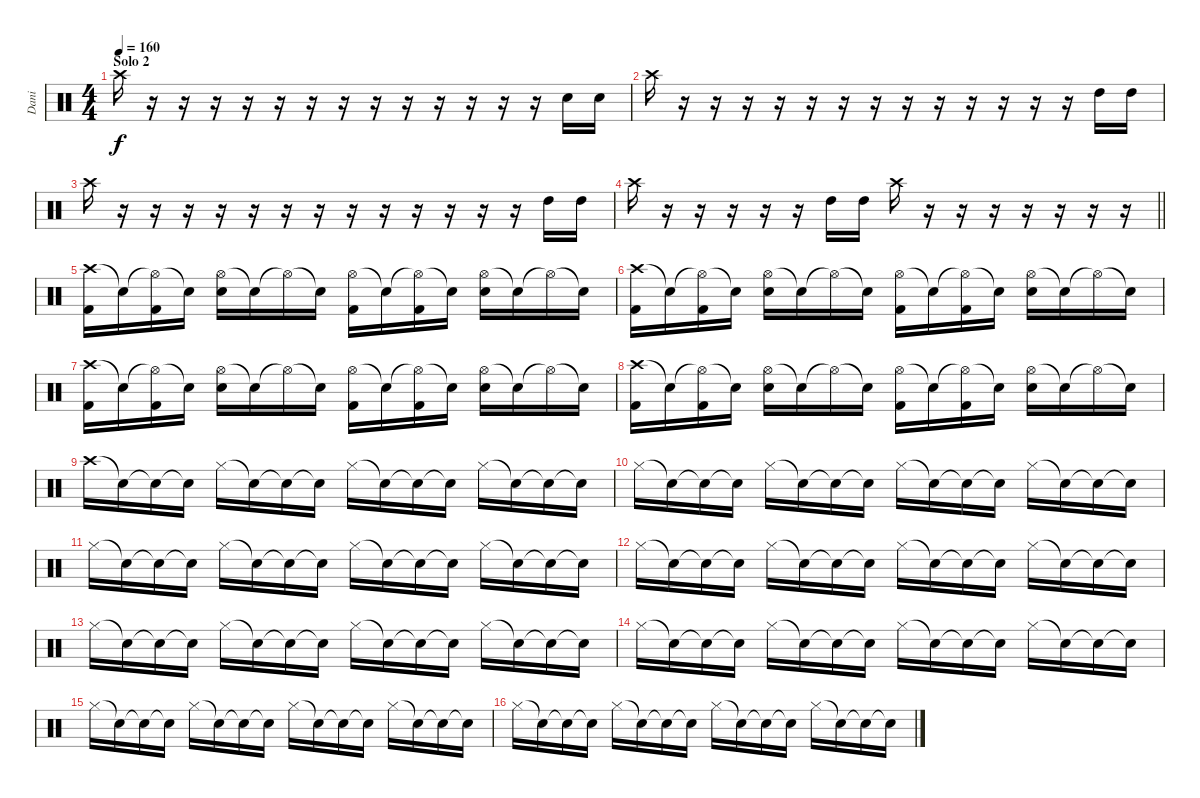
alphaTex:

\track ("Dani " "Dani ") {instrument percussion}
\staff {score}
\articulation defaults
\ts (4 4)
\section ("" "Solo 2")
\tempo 160
\clef neutral
\ks c "Crash high (hit)".16{dy f}
r.16 r.16 r.16 r.16 r.16 r.16 r.16 r.16 r.16 r.16 r.16 r.16 r.16 "Electric Snare (hit)".16 "Electric Snare (hit)".16 |
"Crash high (hit)".16 r.16 r.16 r.16 r.16 r.16 r.16 r.16 r.16 r.16 r.16 r.16 r.16 r.16 "High Tom (hit)".16 "High Tom (hit)".16 |
"Crash high (hit)".16 r.16 r.16 r.16 r.16 r.16 r.16 r.16 r.16 r.16 r.16 r.16 r.16 r.16 "High Tom (hit)".16 "High Tom (hit)".16 |
\barLineRight lightlight "Crash high (hit)".16
r.16 r.16 r.16 r.16 r.16 "High Tom (hit)".16 "High Tom (hit)".16 "Crash high (hit)".16 r.16 r.16 r.16 r.16 r.16 r.16 r.16 |
("Crash high (hit)" "Kick (hit) 2").16 "Snare (hit)"{t}.16 ("Hi-Hat (open)"{t} "Kick (hit) 2").16 "Snare (hit)"{t}.16 ("Hi-Hat (open)" "Electric Snare (hit)").16 "Snare (hit)"{t}.16 "Hi-Hat (open)"{t}.16 "Snare (hit)"{t}.16 ("Hi-Hat (open)" "Kick (hit) 2").16 "Snare (hit)"{t}.16 ("Hi-Hat (open)"{t} "Kick (hit) 2").16 "Snare (hit)"{t}.16 ("Hi-Hat (open)" "Electric Snare (hit)").16 "Snare (hit)"{t}.16 "Hi-Hat (open)"{t}.16 "Snare (hit)"{t}.16 |
("Crash high (hit)" "Kick (hit) 2").16 "Snare (hit)"{t}.16 ("Hi-Hat (open)"{t} "Kick (hit) 2").16 "Snare (hit)"{t}.16 ("Hi-Hat (open)" "Electric Snare (hit)").16 "Snare (hit)"{t}.16 "Hi-Hat (open)"{t}.16 "Snare (hit)"{t}.16 ("Hi-Hat (open)" "Kick (hit) 2").16 "Snare (hit)"{t}.16 ("Hi-Hat (open)"{t} "Kick (hit) 2").16 "Snare (hit)"{t}.16 ("Hi-Hat (open)" "Electric Snare (hit)").16 "Snare (hit)"{t}.16 "Hi-Hat (open)"{t}.16 "Snare (hit)"{t}.16 |
("Crash high (hit)" "Kick (hit) 2").16 "Snare (hit)"{t}.16 ("Hi-Hat (open)"{t} "Kick (hit) 2").16 "Snare (hit)"{t}.16 ("Hi-Hat (open)" "Electric Snare (hit)").16 "Snare (hit)"{t}.16 "Hi-Hat (open)"{t}.16 "Snare (hit)"{t}.16 ("Hi-Hat (open)" "Kick (hit) 2").16 "Snare (hit)"{t}.16 ("Hi-Hat (open)"{t} "Kick (hit) 2").16 "Snare (hit)"{t}.16 ("Hi-Hat (open)" "Electric Snare (hit)").16 "Snare (hit)"{t}.16 "Hi-Hat (open)"{t}.16 "Snare (hit)"{t}.16 |
("Crash high (hit)" "Kick (hit) 2").16 "Snare (hit)"{t}.16 ("Hi-Hat (open)"{t} "Kick (hit) 2").16 "Snare (hit)"{t}.16 ("Hi-Hat (open)" "Electric Snare (hit)").16 "Snare (hit)"{t}.16 "Hi-Hat (open)"{t}.16 "Snare (hit)"{t}.16 ("Hi-Hat (open)" "Kick (hit) 2").16 "Snare (hit)"{t}.16 ("Hi-Hat (open)"{t} "Kick (hit) 2").16 "Snare (hit)"{t}.16 ("Hi-Hat (open)" "Electric Snare (hit)").16 "Snare (hit)"{t}.16 "Hi-Hat (open)"{t}.16 "Snare (hit)"{t}.16 |
"Crash high (hit)".16 "Snare (hit)"{t}.16 "Snare (hit)"{t}.16 "Snare (hit)"{t}.16 "Hi-Hat (closed)".16 "Snare (hit)"{t}.16 "Snare (hit)"{t}.16 "Snare (hit)"{t}.16 "Hi-Hat (closed)".16 "Snare (hit)"{t}.16 "Snare (hit)"{t}.16 "Snare (hit)"{t}.16 "Hi-Hat (closed)".16 "Snare (hit)"{t}.16 "Snare (hit)"{t}.16 "Snare (hit)"{t}.16 |
"Hi-Hat (closed)".16 "Snare (hit)"{t}.16 "Snare (hit)"{t}.16 "Snare (hit)"{t}.16 "Hi-Hat (closed)".16 "Snare (hit)"{t}.16 "Snare (hit)"{t}.16 "Snare (hit)"{t}.16 "Hi-Hat (closed)".16 "Snare (hit)"{t}.16 "Snare (hit)"{t}.16 "Snare (hit)"{t}.16 "Hi-Hat (closed)".16 "Snare (hit)"{t}.16 "Snare (hit)"{t}.16 "Snare (hit)"{t}.16 |
"Hi-Hat (closed)".16 "Snare (hit)"{t}.16 "Snare (hit)"{t}.16 "Snare (hit)"{t}.16 "Hi-Hat (closed)".16 "Snare (hit)"{t}.16 "Snare (hit)"{t}.16 "Snare (hit)"{t}.16 "Hi-Hat (closed)".16 "Snare (hit)"{t}.16 "Snare (hit)"{t}.16 "Snare (hit)"{t}.16 "Hi-Hat (closed)".16 "Snare (hit)"{t}.16 "Snare (hit)"{t}.16 "Snare (hit)"{t}.16 |
"Hi-Hat (closed)".16 "Snare (hit)"{t}.16 "Snare (hit)"{t}.16 "Snare (hit)"{t}.16 "Hi-Hat (closed)".16 "Snare (hit)"{t}.16 "Snare (hit)"{t}.16 "Snare (hit)"{t}.16 "Hi-Hat (closed)".16 "Snare (hit)"{t}.16 "Snare (hit)"{t}.16 "Snare (hit)"{t}.16 "Hi-Hat (closed)".16 "Snare (hit)"{t}.16 "Snare (hit)"{t}.16 "Snare (hit)"{t}.16 |
"Hi-Hat (closed)".16 "Snare (hit)"{t}.16 "Snare (hit)"{t}.16 "Snare (hit)"{t}.16 "Hi-Hat (closed)".16 "Snare (hit)"{t}.16 "Snare (hit)"{t}.16 "Snare (hit)"{t}.16 "Hi-Hat (closed)".16 "Snare (hit)"{t}.16 "Snare (hit)"{t}.16 "Snare (hit)"{t}.16 "Hi-Hat (closed)".16 "Snare (hit)"{t}.16 "Snare (hit)"{t}.16 "Snare (hit)"{t}.16 |
"Hi-Hat (closed)".16 "Snare (hit)"{t}.16 "Snare (hit)"{t}.16 "Snare (hit)"{t}.16 "Hi-Hat (closed)".16 "Snare (hit)"{t}.16 "Snare (hit)"{t}.16 "Snare (hit)"{t}.16 "Hi-Hat (closed)".16 "Snare (hit)"{t}.16 "Snare (hit)"{t}.16 "Snare (hit)"{t}.16 "Hi-Hat (closed)".16 "Snare (hit)"{t}.16 "Snare (hit)"{t}.16 "Snare (hit)"{t}.16 |
"Hi-Hat (closed)".16 "Snare (hit)"{t}.16 "Snare (hit)"{t}.16 "Snare (hit)"{t}.16 "Hi-Hat (closed)".16 "Snare (hit)"{t}.16 "Snare (hit)"{t}.16 "Snare (hit)"{t}.16 "Hi-Hat (closed)".16 "Snare (hit)"{t}.16 "Snare (hit)"{t}.16 "Snare (hit)"{t}.16 "Hi-Hat (closed)".16 "Snare (hit)"{t}.16 "Snare (hit)"{t}.16 "Snare (hit)"{t}.16 |
"Hi-Hat (closed)".16 "Snare (hit)"{t}.16 "Snare (hit)"{t}.16 "Snare (hit)"{t}.16 "Hi-Hat (closed)".16 "Snare (hit)"{t}.16 "Snare (hit)"{t}.16 "Snare (hit)"{t}.16 "Hi-Hat (closed)".16 "Snare (hit)"{t}.16 "Snare (hit)"{t}.16 "Snare (hit)"{t}.16 "Hi-Hat (closed)".16 "Snare (hit)"{t}.16 "Snare (hit)"{t}.16 "Snare (hit)"{t}.16
